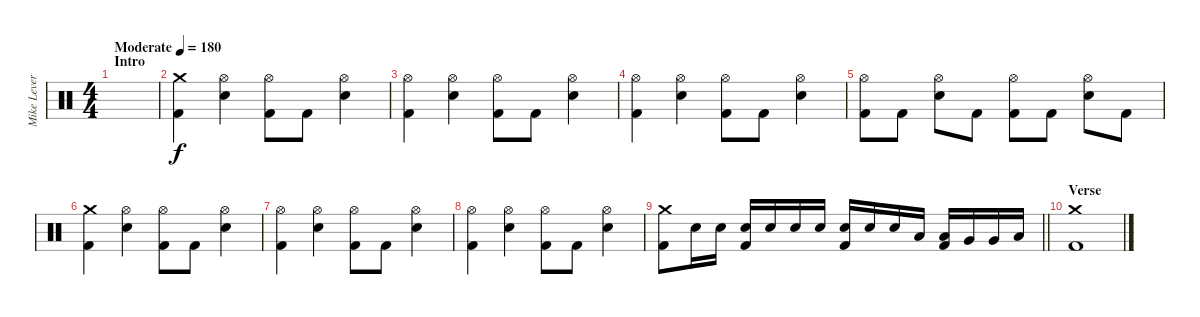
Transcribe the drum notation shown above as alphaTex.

\track ("Mike Leverence - Drums" "Mike Lever") {instrument percussion}
\staff {score}
\articulation defaults
\ts (4 4)
\section ("" "Intro")
\tempo (180 "Moderate")
\clef neutral
\ks c
|
("Crash medium (hit)" "Kick (hit) 2").4 ("Hi-Hat (open)" "Electric Snare (hit)").4 ("Hi-Hat (open)" "Kick (hit) 2").8 "Kick (hit) 2".8 ("Hi-Hat (open)" "Electric Snare (hit)").4 |
("Hi-Hat (open)" "Kick (hit) 2").4 ("Hi-Hat (open)" "Electric Snare (hit)").4 ("Hi-Hat (open)" "Kick (hit) 2").8 "Kick (hit) 2".8 ("Hi-Hat (open)" "Electric Snare (hit)").4 |
("Hi-Hat (open)" "Kick (hit) 2").4 ("Hi-Hat (open)" "Electric Snare (hit)").4 ("Hi-Hat (open)" "Kick (hit) 2").8 "Kick (hit) 2".8 ("Hi-Hat (open)" "Electric Snare (hit)").4 |
("Hi-Hat (open)" "Kick (hit) 2").8 "Kick (hit) 2".8 ("Hi-Hat (open)" "Electric Snare (hit)").8 "Kick (hit) 2".8 ("Hi-Hat (open)" "Kick (hit) 2").8 "Kick (hit) 2".8 ("Hi-Hat (open)" "Electric Snare (hit)").8 "Kick (hit) 2".8 |
("Crash medium (hit)" "Kick (hit) 2").4 ("Hi-Hat (open)" "Electric Snare (hit)").4 ("Hi-Hat (open)" "Kick (hit) 2").8 "Kick (hit) 2".8 ("Hi-Hat (open)" "Electric Snare (hit)").4 |
("Hi-Hat (open)" "Kick (hit) 2").4 ("Hi-Hat (open)" "Electric Snare (hit)").4 ("Hi-Hat (open)" "Kick (hit) 2").8 "Kick (hit) 2".8 ("Hi-Hat (open)" "Electric Snare (hit)").4 |
("Hi-Hat (open)" "Kick (hit) 2").4 ("Hi-Hat (open)" "Electric Snare (hit)").4 ("Hi-Hat (open)" "Kick (hit) 2").8 "Kick (hit) 2".8 ("Hi-Hat (open)" "Electric Snare (hit)").4 |
\barLineRight lightlight
("Crash medium (hit)" "Kick (hit) 2").8 "Electric Snare (hit)".16 "Electric Snare (hit)".16 ("Electric Snare (hit)" "Kick (hit) 2").16 "Electric Snare (hit)".16 "Electric Snare (hit)".16 "Electric Snare (hit)".16 ("Electric Snare (hit)" "Kick (hit) 2").16 "Electric Snare (hit)".16 "Electric Snare (hit)".16 "Low Tom (hit)".16 ("Low Tom (hit)" "Kick (hit) 2").16 "Very Low Tom (hit)".16 "Very Low Tom (hit)".16 "Low Floor Tom (hit)".16 |
\section ("" "Verse ")
("Crash medium (hit)" "Kick (hit) 2").1
